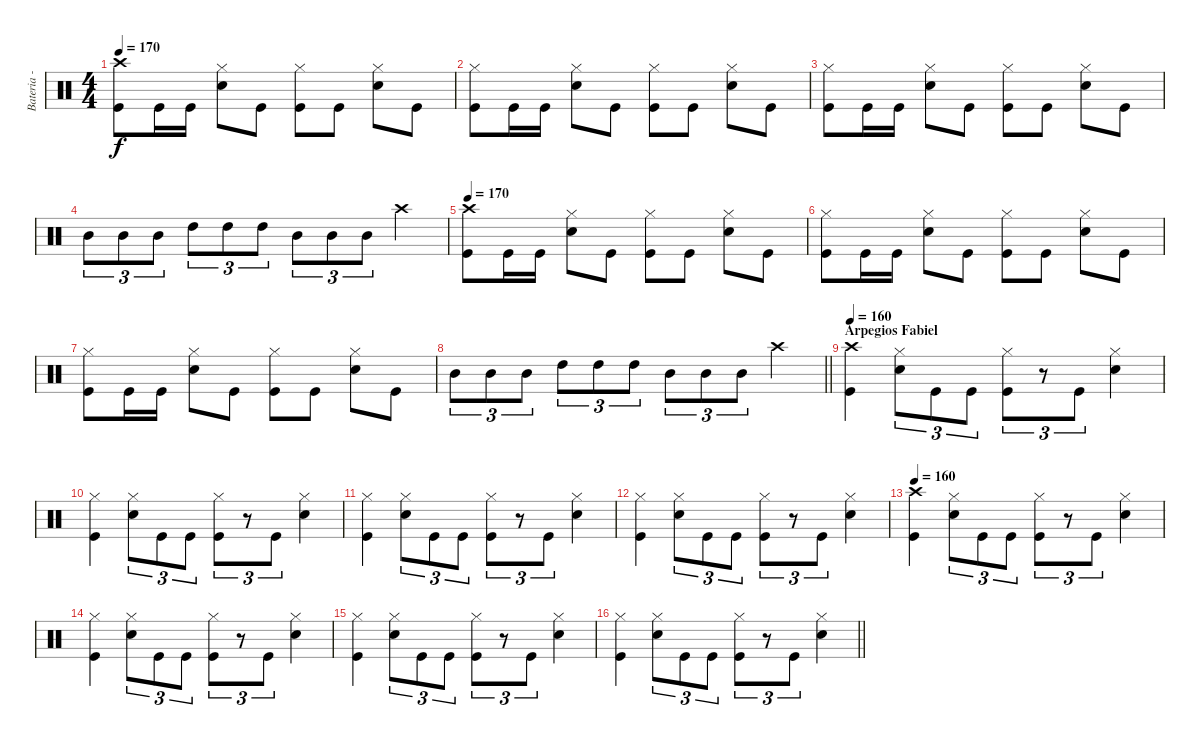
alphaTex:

\track ("Bateria - Joaquin" "Bateria - ") {instrument percussion}
\staff {score}
\articulation defaults
\ts (4 4)
\tempo 170
\clef neutral
\ks c
("Crash high (hit)" "Kick (hit)").8{dy f} "Kick (hit)".16 "Kick (hit)".16 ("Hi-Hat (closed)" "Snare (hit) 2").8 "Kick (hit)".8 ("Hi-Hat (closed)" "Kick (hit)").8 "Kick (hit)".8 ("Hi-Hat (closed)" "Snare (hit) 2").8 "Kick (hit)".8 |
("Hi-Hat (closed)" "Kick (hit)").8 "Kick (hit)".16 "Kick (hit)".16 ("Hi-Hat (closed)" "Snare (hit) 2").8 "Kick (hit)".8 ("Hi-Hat (closed)" "Kick (hit)").8 "Kick (hit)".8 ("Hi-Hat (closed)" "Snare (hit) 2").8 "Kick (hit)".8 |
("Hi-Hat (closed)" "Kick (hit)").8 "Kick (hit)".16 "Kick (hit)".16 ("Hi-Hat (closed)" "Snare (hit) 2").8 "Kick (hit)".8 ("Hi-Hat (closed)" "Kick (hit)").8 "Kick (hit)".8 ("Hi-Hat (closed)" "Snare (hit) 2").8 "Kick (hit)".8 |
"Mid Tom (hit)".8{tu (3 2)} "Mid Tom (hit)".8{tu (3 2)} "Mid Tom (hit)".8{tu (3 2)} "High Tom (hit)".8{tu (3 2)} "High Tom (hit)".8{tu (3 2)} "High Tom (hit)".8{tu (3 2)} "Mid Tom (hit)".8{tu (3 2)} "Mid Tom (hit)".8{tu (3 2)} "Mid Tom (hit)".8{tu (3 2)} "Crash high (hit)".4 |
\tempo 170
("Crash high (hit)" "Kick (hit)").8 "Kick (hit)".16 "Kick (hit)".16 ("Hi-Hat (closed)" "Snare (hit) 2").8 "Kick (hit)".8 ("Hi-Hat (closed)" "Kick (hit)").8 "Kick (hit)".8 ("Hi-Hat (closed)" "Snare (hit) 2").8 "Kick (hit)".8 |
("Hi-Hat (closed)" "Kick (hit)").8 "Kick (hit)".16 "Kick (hit)".16 ("Hi-Hat (closed)" "Snare (hit) 2").8 "Kick (hit)".8 ("Hi-Hat (closed)" "Kick (hit)").8 "Kick (hit)".8 ("Hi-Hat (closed)" "Snare (hit) 2").8 "Kick (hit)".8 |
("Hi-Hat (closed)" "Kick (hit)").8 "Kick (hit)".16 "Kick (hit)".16 ("Hi-Hat (closed)" "Snare (hit) 2").8 "Kick (hit)".8 ("Hi-Hat (closed)" "Kick (hit)").8 "Kick (hit)".8 ("Hi-Hat (closed)" "Snare (hit) 2").8 "Kick (hit)".8 |
\barLineRight lightlight "Mid Tom (hit)".8{tu (3 2)} "Mid Tom (hit)".8{tu (3 2)} "Mid Tom (hit)".8{tu (3 2)} "High Tom (hit)".8{tu (3 2)} "High Tom (hit)".8{tu (3 2)} "High Tom (hit)".8{tu (3 2)} "Mid Tom (hit)".8{tu (3 2)} "Mid Tom (hit)".8{tu (3 2)} "Mid Tom (hit)".8{tu (3 2)} "Crash high (hit)".4
|
\section ("" "Arpegios Fabiel")
\tempo 160
("Crash high (hit)" "Kick (hit)").4 ("Snare (hit) 2" "Hi-Hat (closed)").8{tu (3 2)} "Kick (hit)".8{tu (3 2)} "Kick (hit)".8{tu (3 2)} ("Hi-Hat (closed)" "Kick (hit)").8{tu (3 2)} r.8{tu (3 2)} "Kick (hit)".8{tu (3 2)} ("Hi-Hat (closed)" "Snare (hit) 2").4 |
("Hi-Hat (closed)" "Kick (hit)").4 ("Snare (hit) 2" "Hi-Hat (closed)").8{tu (3 2)} "Kick (hit)".8{tu (3 2)} "Kick (hit)".8{tu (3 2)} ("Hi-Hat (closed)" "Kick (hit)").8{tu (3 2)} r.8{tu (3 2)} "Kick (hit)".8{tu (3 2)} ("Hi-Hat (closed)" "Snare (hit) 2").4 |
("Hi-Hat (closed)" "Kick (hit)").4 ("Snare (hit) 2" "Hi-Hat (closed)").8{tu (3 2)} "Kick (hit)".8{tu (3 2)} "Kick (hit)".8{tu (3 2)} ("Hi-Hat (closed)" "Kick (hit)").8{tu (3 2)} r.8{tu (3 2)} "Kick (hit)".8{tu (3 2)} ("Hi-Hat (closed)" "Snare (hit) 2").4 |
("Hi-Hat (closed)" "Kick (hit)").4 ("Snare (hit) 2" "Hi-Hat (closed)").8{tu (3 2)} "Kick (hit)".8{tu (3 2)} "Kick (hit)".8{tu (3 2)} ("Hi-Hat (closed)" "Kick (hit)").8{tu (3 2)} r.8{tu (3 2)} "Kick (hit)".8{tu (3 2)} ("Hi-Hat (closed)" "Snare (hit) 2").4 |
\tempo 160
("Crash high (hit)" "Kick (hit)").4 ("Snare (hit) 2" "Hi-Hat (closed)").8{tu (3 2)} "Kick (hit)".8{tu (3 2)} "Kick (hit)".8{tu (3 2)} ("Hi-Hat (closed)" "Kick (hit)").8{tu (3 2)} r.8{tu (3 2)} "Kick (hit)".8{tu (3 2)} ("Hi-Hat (closed)" "Snare (hit) 2").4 |
("Hi-Hat (closed)" "Kick (hit)").4 ("Snare (hit) 2" "Hi-Hat (closed)").8{tu (3 2)} "Kick (hit)".8{tu (3 2)} "Kick (hit)".8{tu (3 2)} ("Hi-Hat (closed)" "Kick (hit)").8{tu (3 2)} r.8{tu (3 2)} "Kick (hit)".8{tu (3 2)} ("Hi-Hat (closed)" "Snare (hit) 2").4 |
("Hi-Hat (closed)" "Kick (hit)").4 ("Snare (hit) 2" "Hi-Hat (closed)").8{tu (3 2)} "Kick (hit)".8{tu (3 2)} "Kick (hit)".8{tu (3 2)} ("Hi-Hat (closed)" "Kick (hit)").8{tu (3 2)} r.8{tu (3 2)} "Kick (hit)".8{tu (3 2)} ("Hi-Hat (closed)" "Snare (hit) 2").4 |
\barLineRight lightlight
("Hi-Hat (closed)" "Kick (hit)").4 ("Snare (hit) 2" "Hi-Hat (closed)").8{tu (3 2)} "Kick (hit)".8{tu (3 2)} "Kick (hit)".8{tu (3 2)} ("Hi-Hat (closed)" "Kick (hit)").8{tu (3 2)} r.8{tu (3 2)} "Kick (hit)".8{tu (3 2)} ("Hi-Hat (closed)" "Snare (hit) 2").4
